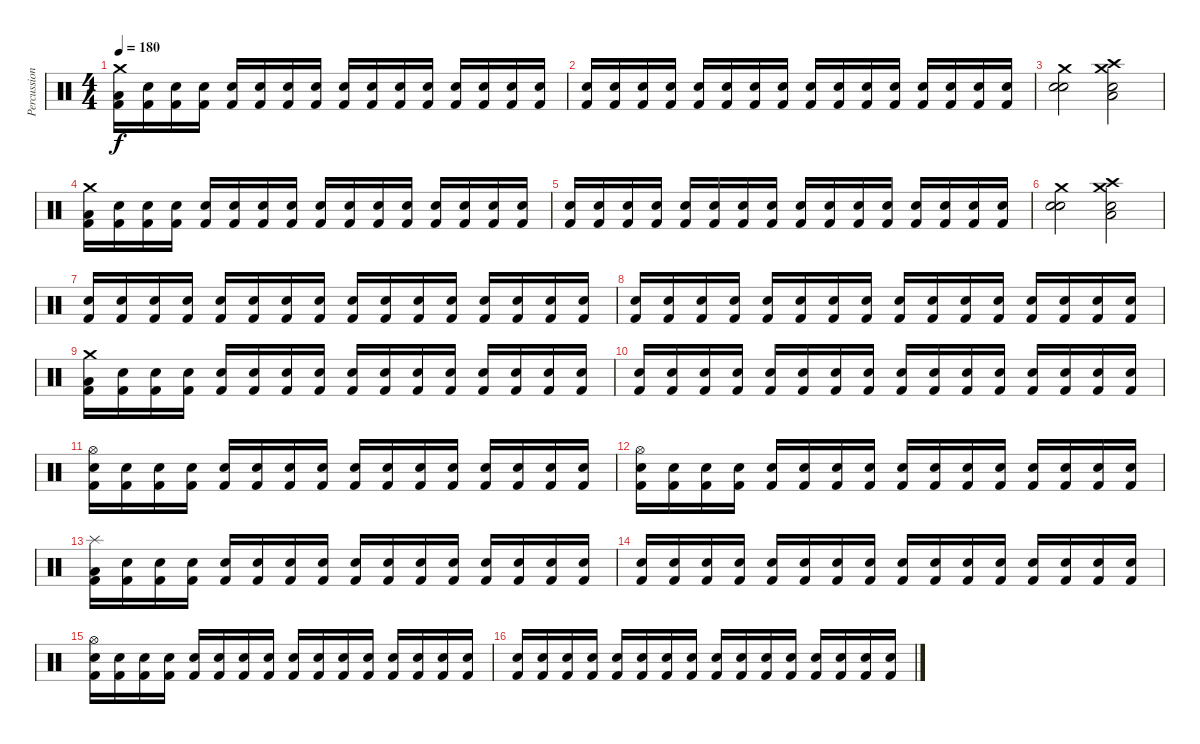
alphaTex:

\track ("Percussion" "Percussion") {instrument percussion}
\staff {score}
\articulation defaults
\ts (4 4)
\tempo 180
\clef neutral
\ks c
("Crash medium (hit)" "Low Tom (hit)" "Kick (hit) 2").16{dy f} ("Electric Snare (hit)" "Kick (hit) 2").16 ("Snare (hit) 2" "Kick (hit) 2").16 ("Electric Snare (hit)" "Kick (hit) 2").16 ("Snare (hit) 2" "Kick (hit) 2").16 ("Electric Snare (hit)" "Kick (hit) 2").16 ("Snare (hit) 2" "Kick (hit) 2").16 ("Electric Snare (hit)" "Kick (hit) 2").16 ("Snare (hit) 2" "Kick (hit) 2").16 ("Electric Snare (hit)" "Kick (hit) 2").16 ("Snare (hit) 2" "Kick (hit) 2").16 ("Electric Snare (hit)" "Kick (hit) 2").16 ("Snare (hit) 2" "Kick (hit) 2").16 ("Electric Snare (hit)" "Kick (hit) 2").16 ("Snare (hit) 2" "Kick (hit) 2").16 ("Electric Snare (hit)" "Kick (hit) 2").16 |
("Snare (hit) 2" "Kick (hit) 2").16 ("Electric Snare (hit)" "Kick (hit) 2").16 ("Snare (hit) 2" "Kick (hit) 2").16 ("Electric Snare (hit)" "Kick (hit) 2").16 ("Snare (hit) 2" "Kick (hit) 2").16 ("Electric Snare (hit)" "Kick (hit) 2").16 ("Snare (hit) 2" "Kick (hit) 2").16 ("Electric Snare (hit)" "Kick (hit) 2").16 ("Snare (hit) 2" "Kick (hit) 2").16 ("Electric Snare (hit)" "Kick (hit) 2").16 ("Snare (hit) 2" "Kick (hit) 2").16 ("Electric Snare (hit)" "Kick (hit) 2").16 ("Snare (hit) 2" "Kick (hit) 2").16 ("Electric Snare (hit)" "Kick (hit) 2").16 ("Snare (hit) 2" "Kick (hit) 2").16 ("Electric Snare (hit)" "Kick (hit) 2").16 |
("Crash medium (hit)" "Electric Snare (hit)" "Snare (hit) 2").2 ("Crash medium (hit)" "Crash high (hit)" "Low Tom (hit)" "Electric Snare (hit)").2 |
("Crash medium (hit)" "Low Tom (hit)" "Kick (hit) 2").16 ("Electric Snare (hit)" "Kick (hit) 2").16 ("Snare (hit) 2" "Kick (hit) 2").16 ("Electric Snare (hit)" "Kick (hit) 2").16 ("Snare (hit) 2" "Kick (hit) 2").16 ("Electric Snare (hit)" "Kick (hit) 2").16 ("Snare (hit) 2" "Kick (hit) 2").16 ("Electric Snare (hit)" "Kick (hit) 2").16 ("Snare (hit) 2" "Kick (hit) 2").16 ("Electric Snare (hit)" "Kick (hit) 2").16 ("Snare (hit) 2" "Kick (hit) 2").16 ("Electric Snare (hit)" "Kick (hit) 2").16 ("Snare (hit) 2" "Kick (hit) 2").16 ("Electric Snare (hit)" "Kick (hit) 2").16 ("Snare (hit) 2" "Kick (hit) 2").16 ("Electric Snare (hit)" "Kick (hit) 2").16 |
("Snare (hit) 2" "Kick (hit) 2").16 ("Electric Snare (hit)" "Kick (hit) 2").16 ("Snare (hit) 2" "Kick (hit) 2").16 ("Electric Snare (hit)" "Kick (hit) 2").16 ("Snare (hit) 2" "Kick (hit) 2").16 ("Electric Snare (hit)" "Kick (hit) 2").16 ("Snare (hit) 2" "Kick (hit) 2").16 ("Electric Snare (hit)" "Kick (hit) 2").16 ("Snare (hit) 2" "Kick (hit) 2").16 ("Electric Snare (hit)" "Kick (hit) 2").16 ("Snare (hit) 2" "Kick (hit) 2").16 ("Electric Snare (hit)" "Kick (hit) 2").16 ("Snare (hit) 2" "Kick (hit) 2").16 ("Electric Snare (hit)" "Kick (hit) 2").16 ("Snare (hit) 2" "Kick (hit) 2").16 ("Electric Snare (hit)" "Kick (hit) 2").16 |
("Crash medium (hit)" "Electric Snare (hit)" "Snare (hit) 2").2 ("Crash medium (hit)" "Crash high (hit)" "Low Tom (hit)" "Electric Snare (hit)").2 |
("Snare (hit) 2" "Kick (hit) 2").16 ("Electric Snare (hit)" "Kick (hit) 2").16 ("Snare (hit) 2" "Kick (hit) 2").16 ("Electric Snare (hit)" "Kick (hit) 2").16 ("Snare (hit) 2" "Kick (hit) 2").16 ("Electric Snare (hit)" "Kick (hit) 2").16 ("Snare (hit) 2" "Kick (hit) 2").16 ("Electric Snare (hit)" "Kick (hit) 2").16 ("Snare (hit) 2" "Kick (hit) 2").16 ("Electric Snare (hit)" "Kick (hit) 2").16 ("Snare (hit) 2" "Kick (hit) 2").16 ("Electric Snare (hit)" "Kick (hit) 2").16 ("Snare (hit) 2" "Kick (hit) 2").16 ("Electric Snare (hit)" "Kick (hit) 2").16 ("Snare (hit) 2" "Kick (hit) 2").16 ("Electric Snare (hit)" "Kick (hit) 2").16 |
("Snare (hit) 2" "Kick (hit) 2").16 ("Electric Snare (hit)" "Kick (hit) 2").16 ("Snare (hit) 2" "Kick (hit) 2").16 ("Electric Snare (hit)" "Kick (hit) 2").16 ("Snare (hit) 2" "Kick (hit) 2").16 ("Electric Snare (hit)" "Kick (hit) 2").16 ("Snare (hit) 2" "Kick (hit) 2").16 ("Electric Snare (hit)" "Kick (hit) 2").16 ("Snare (hit) 2" "Kick (hit) 2").16 ("Electric Snare (hit)" "Kick (hit) 2").16 ("Snare (hit) 2" "Kick (hit) 2").16 ("Electric Snare (hit)" "Kick (hit) 2").16 ("Snare (hit) 2" "Kick (hit) 2").16 ("Electric Snare (hit)" "Kick (hit) 2").16 ("Snare (hit) 2" "Kick (hit) 2").16 ("Electric Snare (hit)" "Kick (hit) 2").16 |
("Crash medium (hit)" "Low Tom (hit)" "Kick (hit) 2").16 ("Electric Snare (hit)" "Kick (hit) 2").16 ("Snare (hit) 2" "Kick (hit) 2").16 ("Electric Snare (hit)" "Kick (hit) 2").16 ("Snare (hit) 2" "Kick (hit) 2").16 ("Electric Snare (hit)" "Kick (hit) 2").16 ("Snare (hit) 2" "Kick (hit) 2").16 ("Electric Snare (hit)" "Kick (hit) 2").16 ("Snare (hit) 2" "Kick (hit) 2").16 ("Electric Snare (hit)" "Kick (hit) 2").16 ("Snare (hit) 2" "Kick (hit) 2").16 ("Electric Snare (hit)" "Kick (hit) 2").16 ("Snare (hit) 2" "Kick (hit) 2").16 ("Electric Snare (hit)" "Kick (hit) 2").16 ("Snare (hit) 2" "Kick (hit) 2").16 ("Electric Snare (hit)" "Kick (hit) 2").16 |
("Snare (hit) 2" "Kick (hit) 2").16 ("Electric Snare (hit)" "Kick (hit) 2").16 ("Snare (hit) 2" "Kick (hit) 2").16 ("Electric Snare (hit)" "Kick (hit) 2").16 ("Snare (hit) 2" "Kick (hit) 2").16 ("Electric Snare (hit)" "Kick (hit) 2").16 ("Snare (hit) 2" "Kick (hit) 2").16 ("Electric Snare (hit)" "Kick (hit) 2").16 ("Snare (hit) 2" "Kick (hit) 2").16 ("Electric Snare (hit)" "Kick (hit) 2").16 ("Snare (hit) 2" "Kick (hit) 2").16 ("Electric Snare (hit)" "Kick (hit) 2").16 ("Snare (hit) 2" "Kick (hit) 2").16 ("Electric Snare (hit)" "Kick (hit) 2").16 ("Snare (hit) 2" "Kick (hit) 2").16 ("Electric Snare (hit)" "Kick (hit) 2").16 |
("Hi-Hat (open)" "Snare (hit) 2" "Kick (hit) 2").16 ("Electric Snare (hit)" "Kick (hit) 2").16 ("Snare (hit) 2" "Kick (hit) 2").16 ("Electric Snare (hit)" "Kick (hit) 2").16 ("Snare (hit) 2" "Kick (hit) 2").16 ("Electric Snare (hit)" "Kick (hit) 2").16 ("Snare (hit) 2" "Kick (hit) 2").16 ("Electric Snare (hit)" "Kick (hit) 2").16 ("Snare (hit) 2" "Kick (hit) 2").16 ("Electric Snare (hit)" "Kick (hit) 2").16 ("Snare (hit) 2" "Kick (hit) 2").16 ("Electric Snare (hit)" "Kick (hit) 2").16 ("Snare (hit) 2" "Kick (hit) 2").16 ("Electric Snare (hit)" "Kick (hit) 2").16 ("Snare (hit) 2" "Kick (hit) 2").16 ("Electric Snare (hit)" "Kick (hit) 2").16 |
("Hi-Hat (open)" "Snare (hit) 2" "Kick (hit) 2").16 ("Electric Snare (hit)" "Kick (hit) 2").16 ("Snare (hit) 2" "Kick (hit) 2").16 ("Electric Snare (hit)" "Kick (hit) 2").16 ("Snare (hit) 2" "Kick (hit) 2").16 ("Electric Snare (hit)" "Kick (hit) 2").16 ("Snare (hit) 2" "Kick (hit) 2").16 ("Electric Snare (hit)" "Kick (hit) 2").16 ("Snare (hit) 2" "Kick (hit) 2").16 ("Electric Snare (hit)" "Kick (hit) 2").16 ("Snare (hit) 2" "Kick (hit) 2").16 ("Electric Snare (hit)" "Kick (hit) 2").16 ("Snare (hit) 2" "Kick (hit) 2").16 ("Electric Snare (hit)" "Kick (hit) 2").16 ("Snare (hit) 2" "Kick (hit) 2").16 ("Electric Snare (hit)" "Kick (hit) 2").16 |
("Splash (hit)" "Low Tom (hit)" "Kick (hit) 2").16 ("Electric Snare (hit)" "Kick (hit) 2").16 ("Snare (hit) 2" "Kick (hit) 2").16 ("Electric Snare (hit)" "Kick (hit) 2").16 ("Snare (hit) 2" "Kick (hit) 2").16 ("Electric Snare (hit)" "Kick (hit) 2").16 ("Snare (hit) 2" "Kick (hit) 2").16 ("Electric Snare (hit)" "Kick (hit) 2").16 ("Snare (hit) 2" "Kick (hit) 2").16 ("Electric Snare (hit)" "Kick (hit) 2").16 ("Snare (hit) 2" "Kick (hit) 2").16 ("Electric Snare (hit)" "Kick (hit) 2").16 ("Snare (hit) 2" "Kick (hit) 2").16 ("Electric Snare (hit)" "Kick (hit) 2").16 ("Snare (hit) 2" "Kick (hit) 2").16 ("Electric Snare (hit)" "Kick (hit) 2").16 |
("Snare (hit) 2" "Kick (hit) 2").16 ("Electric Snare (hit)" "Kick (hit) 2").16 ("Snare (hit) 2" "Kick (hit) 2").16 ("Electric Snare (hit)" "Kick (hit) 2").16 ("Snare (hit) 2" "Kick (hit) 2").16 ("Electric Snare (hit)" "Kick (hit) 2").16 ("Snare (hit) 2" "Kick (hit) 2").16 ("Electric Snare (hit)" "Kick (hit) 2").16 ("Snare (hit) 2" "Kick (hit) 2").16 ("Electric Snare (hit)" "Kick (hit) 2").16 ("Snare (hit) 2" "Kick (hit) 2").16 ("Electric Snare (hit)" "Kick (hit) 2").16 ("Snare (hit) 2" "Kick (hit) 2").16 ("Electric Snare (hit)" "Kick (hit) 2").16 ("Snare (hit) 2" "Kick (hit) 2").16 ("Electric Snare (hit)" "Kick (hit) 2").16 |
("Hi-Hat (open)" "Snare (hit) 2" "Kick (hit) 2").16 ("Electric Snare (hit)" "Kick (hit) 2").16 ("Snare (hit) 2" "Kick (hit) 2").16 ("Electric Snare (hit)" "Kick (hit) 2").16 ("Snare (hit) 2" "Kick (hit) 2").16 ("Electric Snare (hit)" "Kick (hit) 2").16 ("Snare (hit) 2" "Kick (hit) 2").16 ("Electric Snare (hit)" "Kick (hit) 2").16 ("Snare (hit) 2" "Kick (hit) 2").16 ("Electric Snare (hit)" "Kick (hit) 2").16 ("Snare (hit) 2" "Kick (hit) 2").16 ("Electric Snare (hit)" "Kick (hit) 2").16 ("Snare (hit) 2" "Kick (hit) 2").16 ("Electric Snare (hit)" "Kick (hit) 2").16 ("Snare (hit) 2" "Kick (hit) 2").16 ("Electric Snare (hit)" "Kick (hit) 2").16 |
("Snare (hit) 2" "Kick (hit) 2").16 ("Electric Snare (hit)" "Kick (hit) 2").16 ("Snare (hit) 2" "Kick (hit) 2").16 ("Electric Snare (hit)" "Kick (hit) 2").16 ("Snare (hit) 2" "Kick (hit) 2").16 ("Electric Snare (hit)" "Kick (hit) 2").16 ("Snare (hit) 2" "Kick (hit) 2").16 ("Electric Snare (hit)" "Kick (hit) 2").16 ("Snare (hit) 2" "Kick (hit) 2").16 ("Electric Snare (hit)" "Kick (hit) 2").16 ("Snare (hit) 2" "Kick (hit) 2").16 ("Electric Snare (hit)" "Kick (hit) 2").16 ("Snare (hit) 2" "Kick (hit) 2").16 ("Electric Snare (hit)" "Kick (hit) 2").16 ("Snare (hit) 2" "Kick (hit) 2").16 ("Electric Snare (hit)" "Kick (hit) 2").16
